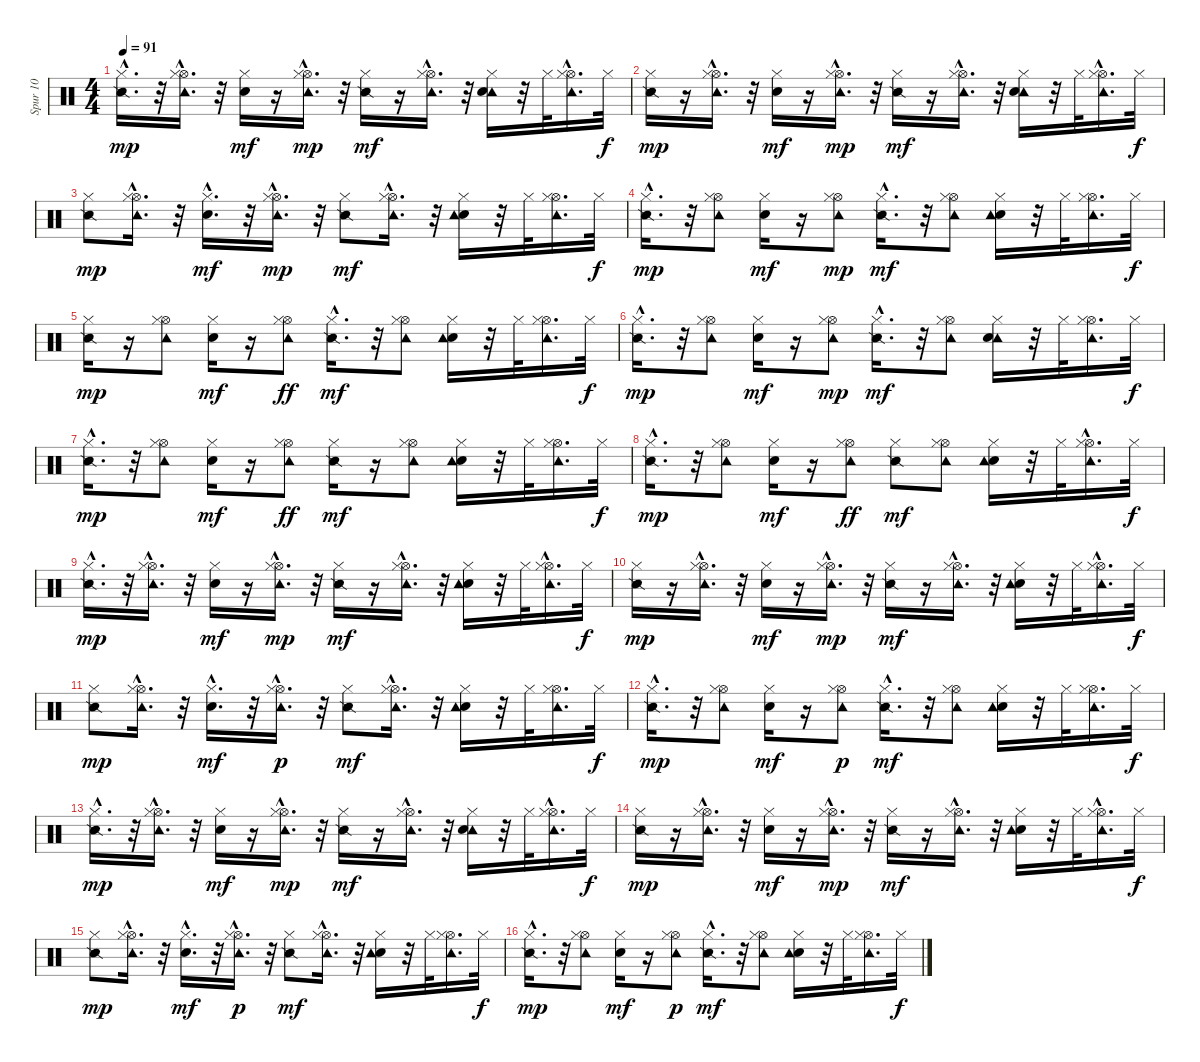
\track ("Spur 10" "Spur 10") {instrument percussion}
\staff {score}
\articulation defaults
\ts (4 4)
\tempo 91
\clef neutral
\ks c
("Snare (side stick) 2"{hac} "Hi-Hat (closed)").16{d dy mp} r.32 ("Tambourine (hit)" "Hi-Hat (open)"{hac} "Hi-Hat (closed)").16{d} r.32 ("Electric Snare (hit)" "Hi-Hat (closed)").16{dy mf} r.16 ("Tambourine (hit)" "Hi-Hat (open)"{hac} "Hi-Hat (closed)").16{d dy mp} r.32 ("Snare (side stick) 2" "Hi-Hat (closed)").16{dy mf} r.16 ("Tambourine (hit)" "Hi-Hat (open)"{hac} "Hi-Hat (closed)").16{d} r.32 ("Tambourine (hit)" "Electric Snare (hit)" "Hi-Hat (closed)").16 r.32 "Hi-Hat (closed)".32 ("Tambourine (hit)" "Hi-Hat (open)"{hac} "Hi-Hat (closed)").16{d} "Hi-Hat (closed)".32{dy f} |
("Snare (side stick) 2" "Hi-Hat (closed)").16{dy mp} r.16 ("Tambourine (hit)" "Hi-Hat (open)"{hac} "Hi-Hat (closed)").16{d} r.32 ("Electric Snare (hit)" "Hi-Hat (closed)").16{dy mf} r.16 ("Tambourine (hit)" "Hi-Hat (open)"{hac} "Hi-Hat (closed)").16{d dy mp} r.32 ("Snare (side stick) 2" "Hi-Hat (closed)").16{dy mf} r.16 ("Tambourine (hit)" "Hi-Hat (open)"{hac} "Hi-Hat (closed)").16{d} r.32 ("Tambourine (hit)" "Electric Snare (hit)" "Hi-Hat (closed)").16 r.32 "Hi-Hat (closed)".32 ("Tambourine (hit)" "Hi-Hat (open)"{hac} "Hi-Hat (closed)").16{d} "Hi-Hat (closed)".32{dy f} |
("Snare (side stick) 2" "Hi-Hat (closed)").8{dy mp} ("Tambourine (hit)" "Hi-Hat (open)"{hac} "Hi-Hat (closed)").16{d} r.32 ("Electric Snare (hit)"{hac} "Hi-Hat (closed)").16{d dy mf} r.32 ("Tambourine (hit)" "Hi-Hat (open)"{hac} "Hi-Hat (closed)").16{d dy mp} r.32 ("Snare (side stick) 2" "Hi-Hat (closed)").8{dy mf} ("Tambourine (hit)" "Hi-Hat (open)"{hac} "Hi-Hat (closed)").16{d} r.32 ("Electric Snare (hit)" "Tambourine (hit)" "Hi-Hat (closed)").16 r.32 "Hi-Hat (closed)".32 ("Tambourine (hit)" "Hi-Hat (open)" "Hi-Hat (closed)").16{d} "Hi-Hat (closed)".32{dy f} |
("Snare (side stick) 2"{hac} "Hi-Hat (closed)").16{d dy mp} r.32 ("Tambourine (hit)" "Hi-Hat (open)" "Hi-Hat (closed)").8 ("Electric Snare (hit)" "Hi-Hat (closed)").16{dy mf} r.16 ("Tambourine (hit)" "Hi-Hat (open)" "Hi-Hat (closed)").8{dy mp} ("Snare (side stick) 2"{hac} "Hi-Hat (closed)").16{d dy mf} r.32 ("Tambourine (hit)" "Hi-Hat (open)" "Hi-Hat (closed)").8 ("Electric Snare (hit)" "Tambourine (hit)" "Hi-Hat (closed)").16 r.32 "Hi-Hat (closed)".32 ("Tambourine (hit)" "Hi-Hat (open)" "Hi-Hat (closed)").16{d} "Hi-Hat (closed)".32{dy f} |
("Snare (side stick) 2" "Hi-Hat (closed)").16{dy mp} r.16 ("Tambourine (hit)" "Hi-Hat (open)" "Hi-Hat (closed)").8 ("Electric Snare (hit)" "Hi-Hat (closed)").16{dy mf} r.16 ("Tambourine (hit)" "Hi-Hat (open)" "Hi-Hat (closed)").8{dy ff} ("Snare (side stick) 2"{hac} "Hi-Hat (closed)").16{d dy mf} r.32 ("Tambourine (hit)" "Hi-Hat (open)" "Hi-Hat (closed)").8 ("Electric Snare (hit)" "Tambourine (hit)" "Hi-Hat (closed)").16 r.32 "Hi-Hat (closed)".32 ("Tambourine (hit)" "Hi-Hat (open)" "Hi-Hat (closed)").16{d} "Hi-Hat (closed)".32{dy f} |
("Snare (side stick) 2"{hac} "Hi-Hat (closed)").16{d dy mp} r.32 ("Tambourine (hit)" "Hi-Hat (open)" "Hi-Hat (closed)").8 ("Electric Snare (hit)" "Hi-Hat (closed)").16{dy mf} r.16 ("Tambourine (hit)" "Hi-Hat (open)" "Hi-Hat (closed)").8{dy mp} ("Snare (side stick) 2"{hac} "Hi-Hat (closed)").16{d dy mf} r.32 ("Tambourine (hit)" "Hi-Hat (open)" "Hi-Hat (closed)").8 ("Tambourine (hit)" "Electric Snare (hit)" "Hi-Hat (closed)").16 r.32 "Hi-Hat (closed)".32 ("Tambourine (hit)" "Hi-Hat (open)" "Hi-Hat (closed)").16{d} "Hi-Hat (closed)".32{dy f} |
("Snare (side stick) 2"{hac} "Hi-Hat (closed)").16{d dy mp} r.32 ("Tambourine (hit)" "Hi-Hat (open)" "Hi-Hat (closed)").8 ("Electric Snare (hit)" "Hi-Hat (closed)").16{dy mf} r.16 ("Tambourine (hit)" "Hi-Hat (open)" "Hi-Hat (closed)").8{dy ff} ("Snare (side stick) 2" "Hi-Hat (closed)").16{dy mf} r.16 ("Tambourine (hit)" "Hi-Hat (open)" "Hi-Hat (closed)").8 ("Electric Snare (hit)" "Tambourine (hit)" "Hi-Hat (closed)").16 r.32 "Hi-Hat (closed)".32 ("Tambourine (hit)" "Hi-Hat (open)" "Hi-Hat (closed)").16{d} "Hi-Hat (closed)".32{dy f} |
("Snare (side stick) 2"{hac} "Hi-Hat (closed)").16{d dy mp} r.32 ("Tambourine (hit)" "Hi-Hat (open)" "Hi-Hat (closed)").8 ("Electric Snare (hit)" "Hi-Hat (closed)").16{dy mf} r.16 ("Tambourine (hit)" "Hi-Hat (open)" "Hi-Hat (closed)").8{dy ff} ("Snare (side stick) 2" "Hi-Hat (closed)").8{dy mf} ("Tambourine (hit)" "Hi-Hat (open)" "Hi-Hat (closed)").8 ("Electric Snare (hit)" "Tambourine (hit)" "Hi-Hat (closed)").16 r.32 "Hi-Hat (closed)".32 ("Tambourine (hit)" "Hi-Hat (open)"{hac} "Hi-Hat (closed)").16{d} "Hi-Hat (closed)".32{dy f} |
("Snare (side stick) 2"{hac} "Hi-Hat (closed)").16{d dy mp} r.32 ("Tambourine (hit)" "Hi-Hat (open)"{hac} "Hi-Hat (closed)").16{d} r.32 ("Electric Snare (hit)" "Hi-Hat (closed)").16{dy mf} r.16 ("Tambourine (hit)" "Hi-Hat (open)"{hac} "Hi-Hat (closed)").16{d dy mp} r.32 ("Snare (side stick) 2" "Hi-Hat (closed)").16{dy mf} r.16 ("Tambourine (hit)" "Hi-Hat (open)"{hac} "Hi-Hat (closed)").16{d} r.32 ("Electric Snare (hit)" "Tambourine (hit)" "Hi-Hat (closed)").16 r.32 "Hi-Hat (closed)".32 ("Tambourine (hit)" "Hi-Hat (open)"{hac} "Hi-Hat (closed)").16{d} "Hi-Hat (closed)".32{dy f} |
("Snare (side stick) 2" "Hi-Hat (closed)").16{dy mp} r.16 ("Tambourine (hit)" "Hi-Hat (open)"{hac} "Hi-Hat (closed)").16{d} r.32 ("Electric Snare (hit)" "Hi-Hat (closed)").16{dy mf} r.16 ("Tambourine (hit)" "Hi-Hat (open)"{hac} "Hi-Hat (closed)").16{d dy mp} r.32 ("Snare (side stick) 2" "Hi-Hat (closed)").16{dy mf} r.16 ("Tambourine (hit)" "Hi-Hat (open)"{hac} "Hi-Hat (closed)").16{d} r.32 ("Electric Snare (hit)" "Tambourine (hit)" "Hi-Hat (closed)").16 r.32 "Hi-Hat (closed)".32 ("Tambourine (hit)" "Hi-Hat (open)"{hac} "Hi-Hat (closed)").16{d} "Hi-Hat (closed)".32{dy f} |
("Snare (side stick) 2" "Hi-Hat (closed)").8{dy mp} ("Tambourine (hit)" "Hi-Hat (open)"{hac} "Hi-Hat (closed)").16{d} r.32 ("Electric Snare (hit)"{hac} "Hi-Hat (closed)").16{d dy mf} r.32 ("Tambourine (hit)" "Hi-Hat (open)"{hac} "Hi-Hat (closed)").16{d dy p} r.32 ("Snare (side stick) 2" "Hi-Hat (closed)").8{dy mf} ("Tambourine (hit)" "Hi-Hat (open)"{hac} "Hi-Hat (closed)").16{d} r.32 ("Electric Snare (hit)" "Tambourine (hit)" "Hi-Hat (closed)").16 r.32 "Hi-Hat (closed)".32 ("Tambourine (hit)" "Hi-Hat (open)" "Hi-Hat (closed)").16{d} "Hi-Hat (closed)".32{dy f} |
("Snare (side stick) 2"{hac} "Hi-Hat (closed)").16{d dy mp} r.32 ("Tambourine (hit)" "Hi-Hat (open)" "Hi-Hat (closed)").8 ("Electric Snare (hit)" "Hi-Hat (closed)").16{dy mf} r.16 ("Tambourine (hit)" "Hi-Hat (open)" "Hi-Hat (closed)").8{dy p} ("Snare (side stick) 2"{hac} "Hi-Hat (closed)").16{d dy mf} r.32 ("Tambourine (hit)" "Hi-Hat (open)" "Hi-Hat (closed)").8 ("Electric Snare (hit)" "Tambourine (hit)" "Hi-Hat (closed)").16 r.32 "Hi-Hat (closed)".32 ("Tambourine (hit)" "Hi-Hat (open)" "Hi-Hat (closed)").16{d} "Hi-Hat (closed)".32{dy f} |
("Snare (side stick) 2"{hac} "Hi-Hat (closed)").16{d dy mp} r.32 ("Tambourine (hit)" "Hi-Hat (open)"{hac} "Hi-Hat (closed)").16{d} r.32 ("Electric Snare (hit)" "Hi-Hat (closed)").16{dy mf} r.16 ("Tambourine (hit)" "Hi-Hat (open)"{hac} "Hi-Hat (closed)").16{d dy mp} r.32 ("Snare (side stick) 2" "Hi-Hat (closed)").16{dy mf} r.16 ("Tambourine (hit)" "Hi-Hat (open)"{hac} "Hi-Hat (closed)").16{d} r.32 ("Tambourine (hit)" "Electric Snare (hit)" "Hi-Hat (closed)").16 r.32 "Hi-Hat (closed)".32 ("Tambourine (hit)" "Hi-Hat (open)"{hac} "Hi-Hat (closed)").16{d} "Hi-Hat (closed)".32{dy f} |
("Snare (side stick) 2" "Hi-Hat (closed)").16{dy mp} r.16 ("Tambourine (hit)" "Hi-Hat (open)"{hac} "Hi-Hat (closed)").16{d} r.32 ("Electric Snare (hit)" "Hi-Hat (closed)").16{dy mf} r.16 ("Tambourine (hit)" "Hi-Hat (open)"{hac} "Hi-Hat (closed)").16{d dy mp} r.32 ("Snare (side stick) 2" "Hi-Hat (closed)").16{dy mf} r.16 ("Tambourine (hit)" "Hi-Hat (open)"{hac} "Hi-Hat (closed)").16{d} r.32 ("Electric Snare (hit)" "Tambourine (hit)" "Hi-Hat (closed)").16 r.32 "Hi-Hat (closed)".32 ("Tambourine (hit)" "Hi-Hat (open)"{hac} "Hi-Hat (closed)").16{d} "Hi-Hat (closed)".32{dy f} |
("Snare (side stick) 2" "Hi-Hat (closed)").8{dy mp} ("Tambourine (hit)" "Hi-Hat (open)"{hac} "Hi-Hat (closed)").16{d} r.32 ("Electric Snare (hit)"{hac} "Hi-Hat (closed)").16{d dy mf} r.32 ("Tambourine (hit)" "Hi-Hat (open)"{hac} "Hi-Hat (closed)").16{d dy p} r.32 ("Snare (side stick) 2" "Hi-Hat (closed)").8{dy mf} ("Tambourine (hit)" "Hi-Hat (open)"{hac} "Hi-Hat (closed)").16{d} r.32 ("Electric Snare (hit)" "Tambourine (hit)" "Hi-Hat (closed)").16 r.32 "Hi-Hat (closed)".32 ("Tambourine (hit)" "Hi-Hat (open)" "Hi-Hat (closed)").16{d} "Hi-Hat (closed)".32{dy f} |
("Snare (side stick) 2"{hac} "Hi-Hat (closed)").16{d dy mp} r.32 ("Tambourine (hit)" "Hi-Hat (open)" "Hi-Hat (closed)").8 ("Electric Snare (hit)" "Hi-Hat (closed)").16{dy mf} r.16 ("Tambourine (hit)" "Hi-Hat (open)" "Hi-Hat (closed)").8{dy p} ("Snare (side stick) 2"{hac} "Hi-Hat (closed)").16{d dy mf} r.32 ("Tambourine (hit)" "Hi-Hat (open)" "Hi-Hat (closed)").8 ("Electric Snare (hit)" "Tambourine (hit)" "Hi-Hat (closed)").16 r.32 "Hi-Hat (closed)".32 ("Tambourine (hit)" "Hi-Hat (open)" "Hi-Hat (closed)").16{d} "Hi-Hat (closed)".32{dy f}
